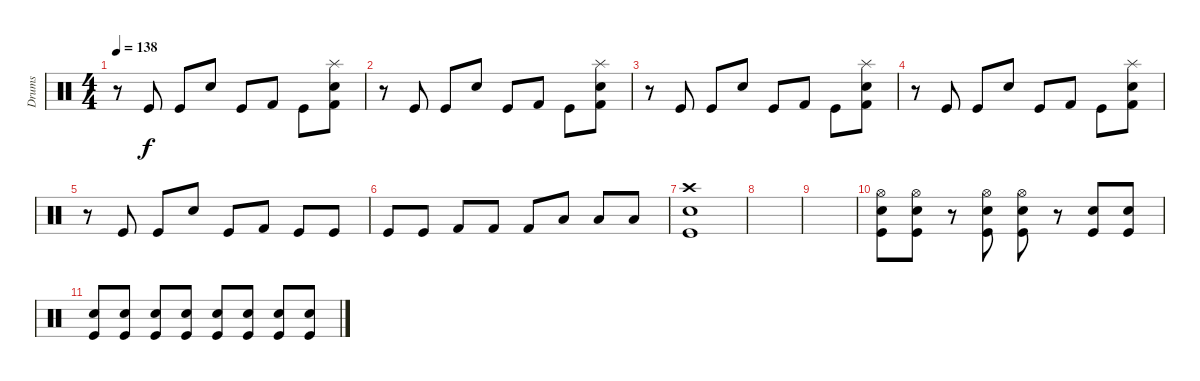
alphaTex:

\track ("Drums" "Drums") {instrument percussion}
\staff {score}
\articulation defaults
\ts (4 4)
\tempo 138
\clef neutral
\ks c
r.8{dy f} "Kick (hit)".8 "Kick (hit)".8 "Snare (hit) 2".8 "Kick (hit)".8 "Kick (hit) 2".8 "Kick (hit)".8 ("Splash (hit)" "Snare (hit) 2" "Kick (hit) 2").8 |
r.8 "Kick (hit)".8 "Kick (hit)".8 "Snare (hit) 2".8 "Kick (hit)".8 "Kick (hit) 2".8 "Kick (hit)".8 ("Splash (hit)" "Snare (hit) 2" "Kick (hit) 2").8 |
r.8 "Kick (hit)".8 "Kick (hit)".8 "Snare (hit) 2".8 "Kick (hit)".8 "Kick (hit) 2".8 "Kick (hit)".8 ("Splash (hit)" "Snare (hit) 2" "Kick (hit) 2").8 |
r.8 "Kick (hit)".8 "Kick (hit)".8 "Snare (hit) 2".8 "Kick (hit)".8 "Kick (hit) 2".8 "Kick (hit)".8 ("Splash (hit)" "Snare (hit) 2" "Kick (hit) 2").8 |
r.8 "Kick (hit)".8 "Kick (hit)".8 "Snare (hit) 2".8 "Kick (hit)".8 "Kick (hit) 2".8 "Kick (hit)".8 "Kick (hit)".8 |
"Kick (hit)".8 "Kick (hit)".8 "Kick (hit) 2".8 "Kick (hit) 2".8 "Kick (hit) 2".8 "Low Floor Tom (hit)".8 "Low Floor Tom (hit)".8 "Low Floor Tom (hit)".8 |
("Crash high (hit)" "Snare (hit) 2" "Kick (hit)").1 |
|
|
("Hi-Hat (open)" "Snare (hit) 2" "Kick (hit)").8 ("Hi-Hat (open)" "Snare (hit) 2" "Kick (hit)").8 r.8 ("Hi-Hat (open)" "Snare (hit) 2" "Kick (hit)").8 ("Hi-Hat (open)" "Snare (hit) 2" "Kick (hit)").8 r.8 ("Snare (hit) 2" "Kick (hit)").8 ("Snare (hit) 2" "Kick (hit)").8 |
("Snare (hit) 2" "Kick (hit)").8 ("Snare (hit) 2" "Kick (hit)").8 ("Snare (hit) 2" "Kick (hit)").8 ("Snare (hit) 2" "Kick (hit)").8 ("Snare (hit) 2" "Kick (hit)").8 ("Snare (hit) 2" "Kick (hit)").8 ("Snare (hit) 2" "Kick (hit)").8 ("Snare (hit) 2" "Kick (hit)").8
